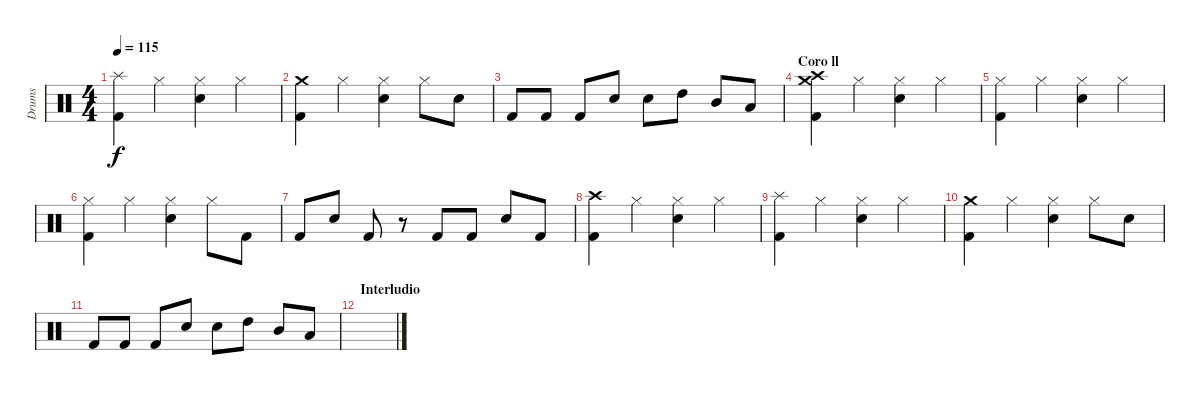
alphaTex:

\track ("Drums" "Drums") {instrument percussion}
\staff {score}
\articulation defaults
\ts (4 4)
\tempo 115
\clef neutral
\ks c
("Splash (hit)" "Kick (hit) 2").4{dy f} "Hi-Hat (closed)".4 ("Hi-Hat (closed)" "Snare (hit) 2").4 "Hi-Hat (closed)".4 |
("Crash medium (hit)" "Kick (hit) 2").4 "Hi-Hat (closed)".4 ("Hi-Hat (closed)" "Snare (hit) 2").4 "Hi-Hat (closed)".8 "Snare (hit) 2".8 |
"Kick (hit) 2".8 "Kick (hit) 2".8 "Kick (hit) 2".8 "Snare (hit) 2".8 "Snare (hit) 2".8 "High Tom (hit)".8 "Mid Tom (hit)".8 "Low Tom (hit)".8 |
\section ("" "Coro ll")
("Crash high (hit)" "Crash medium (hit)" "Kick (hit) 2").4 "Hi-Hat (closed)".4 ("Hi-Hat (closed)" "Snare (hit) 2").4 "Hi-Hat (closed)".4 |
("Hi-Hat (closed)" "Kick (hit) 2").4 "Hi-Hat (closed)".4 ("Hi-Hat (closed)" "Snare (hit) 2").4 "Hi-Hat (closed)".4 |
("Hi-Hat (closed)" "Kick (hit) 2").4 "Hi-Hat (closed)".4 ("Hi-Hat (closed)" "Snare (hit) 2").4 "Hi-Hat (closed)".8 "Kick (hit) 2".8 |
"Kick (hit) 2".8 "Snare (hit) 2".8 "Kick (hit) 2".8 r.8 "Kick (hit) 2".8 "Kick (hit) 2".8 "Snare (hit) 2".8 "Kick (hit) 2".8 |
("Crash high (hit)" "Kick (hit) 2").4 "Hi-Hat (closed)".4 ("Hi-Hat (closed)" "Snare (hit) 2").4 "Hi-Hat (closed)".4 |
("Splash (hit)" "Kick (hit) 2").4 "Hi-Hat (closed)".4 ("Hi-Hat (closed)" "Snare (hit) 2").4 "Hi-Hat (closed)".4 |
("Crash medium (hit)" "Kick (hit) 2").4 "Hi-Hat (closed)".4 ("Hi-Hat (closed)" "Snare (hit) 2").4 "Hi-Hat (closed)".8 "Snare (hit) 2".8 |
"Kick (hit) 2".8 "Kick (hit) 2".8 "Kick (hit) 2".8 "Snare (hit) 2".8 "Snare (hit) 2".8 "High Tom (hit)".8 "Mid Tom (hit)".8 "Low Tom (hit)".8 |
\section ("" "Interludio")
